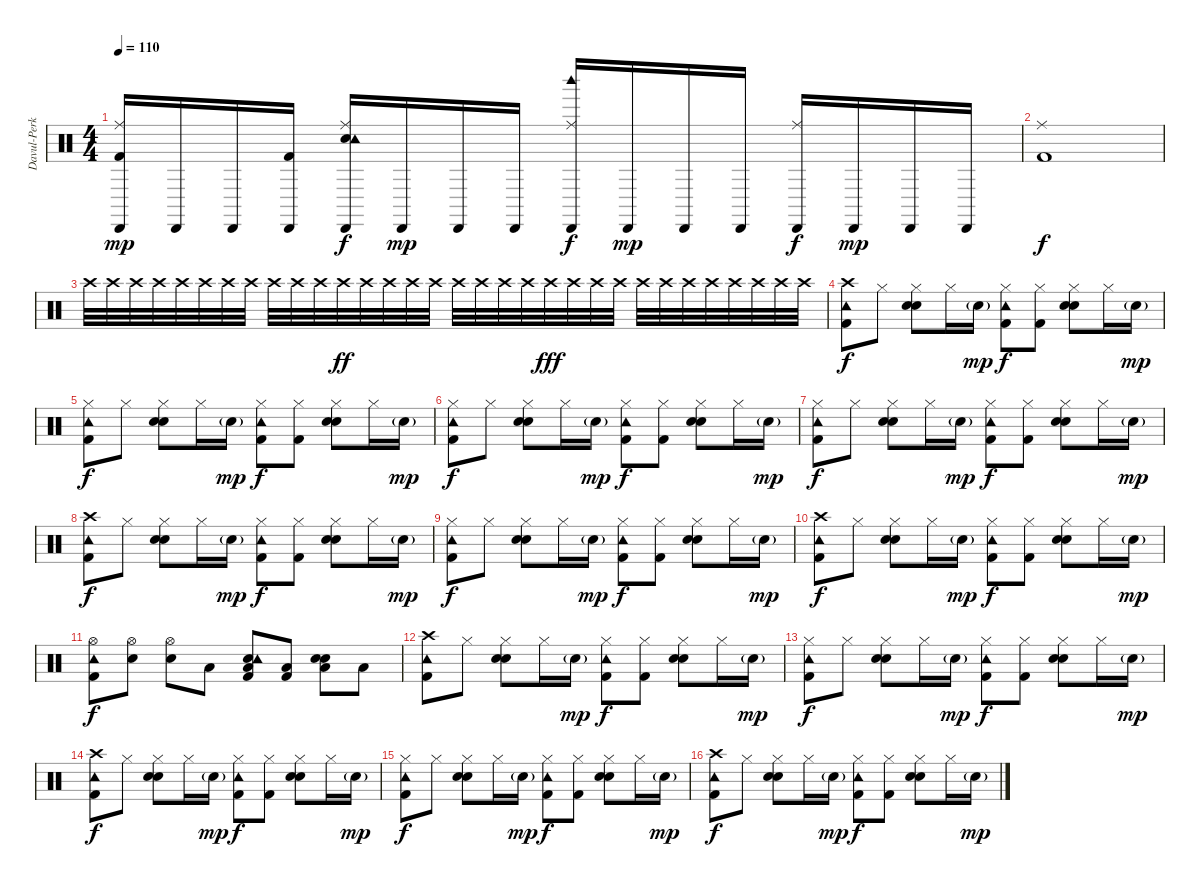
\track ("Davul-Perküsyon" "Davul-Perk") {instrument percussion}
\staff {score}
\articulation defaults
\ts (4 4)
\tempo 110
\clef neutral
\ks c
("Ride (middle)" "Cabasa (hit)" "Kick (hit) 2").16{dy mp} "Cabasa (hit)".16 "Cabasa (hit)".16 ("Cabasa (hit)" "Kick (hit) 2").16 ("Electric Snare (hit)" "Ride (middle)" "Tambourine (hit)" "Cabasa (hit)").16{dy f} "Cabasa (hit)".16{dy mp} "Cabasa (hit)".16 "Cabasa (hit)".16 ("Ride (middle)" "Woodblock high (hit)" "Cabasa (hit)").16{dy f} "Cabasa (hit)".16{dy mp} "Cabasa (hit)".16 "Cabasa (hit)".16 ("Ride (middle)" "Cabasa (hit)").16{dy f} "Cabasa (hit)".16{dy mp} "Cabasa (hit)".16 "Cabasa (hit)".16 |
("Ride (middle)" "Kick (hit) 2").1{dy f} |
"Crash high (hit)".32{volume 1} "Crash high (hit)".32 "Crash high (hit)".32{volume 2} "Crash high (hit)".32 "Crash high (hit)".32{volume 3} "Crash high (hit)".32 "Crash high (hit)".32{volume 4} "Crash high (hit)".32 "Crash high (hit)".32{volume 5} "Crash high (hit)".32 "Crash high (hit)".32{volume 6} "Crash high (hit)".32{dy ff} "Crash high (hit)".32{volume 7} "Crash high (hit)".32 "Crash high (hit)".32{volume 8} "Crash high (hit)".32 "Crash high (hit)".32{volume 9} "Crash high (hit)".32 "Crash high (hit)".32{volume 10} "Crash high (hit)".32 "Crash high (hit)".32{dy fff volume 11} "Crash high (hit)".32 "Crash high (hit)".32{volume 12} "Crash high (hit)".32 "Crash high (hit)".32{volume 13} "Crash high (hit)".32 "Crash high (hit)".32{volume 14} "Crash high (hit)".32 "Crash high (hit)".32{volume 15} "Crash high (hit)".32 "Crash high (hit)".32{volume 16} "Crash high (hit)".32 |
("Crash high (hit)" "Tambourine (hit)" "Kick (hit) 2").8{dy f} "Hi-Hat (closed)".8 ("Electric Snare (hit)" "Hi-Hat (closed)" "Hand Clap (hit)").8 "Hi-Hat (closed)".16 "Electric Snare (hit)"{g}.16{dy mp} ("Hi-Hat (closed)" "Tambourine (hit)" "Kick (hit) 2").8{dy f} ("Hi-Hat (closed)" "Kick (hit) 2").8 ("Electric Snare (hit)" "Hi-Hat (closed)" "Hand Clap (hit)").8 "Hi-Hat (closed)".16 "Electric Snare (hit)"{g}.16{dy mp} |
("Hi-Hat (closed)" "Tambourine (hit)" "Kick (hit) 2").8{dy f} "Hi-Hat (closed)".8 ("Electric Snare (hit)" "Hi-Hat (closed)" "Hand Clap (hit)").8 "Hi-Hat (closed)".16 "Electric Snare (hit)"{g}.16{dy mp} ("Hi-Hat (closed)" "Tambourine (hit)" "Kick (hit) 2").8{dy f} ("Hi-Hat (closed)" "Kick (hit) 2").8 ("Electric Snare (hit)" "Hi-Hat (closed)" "Hand Clap (hit)").8 "Hi-Hat (closed)".16 "Electric Snare (hit)"{g}.16{dy mp} |
("Hi-Hat (closed)" "Tambourine (hit)" "Kick (hit) 2").8{dy f} "Hi-Hat (closed)".8 ("Electric Snare (hit)" "Hi-Hat (closed)" "Hand Clap (hit)").8 "Hi-Hat (closed)".16 "Electric Snare (hit)"{g}.16{dy mp} ("Hi-Hat (closed)" "Tambourine (hit)" "Kick (hit) 2").8{dy f} ("Hi-Hat (closed)" "Kick (hit) 2").8 ("Electric Snare (hit)" "Hi-Hat (closed)" "Hand Clap (hit)").8 "Hi-Hat (closed)".16 "Electric Snare (hit)"{g}.16{dy mp} |
("Hi-Hat (closed)" "Tambourine (hit)" "Kick (hit) 2").8{dy f} "Hi-Hat (closed)".8 ("Electric Snare (hit)" "Hi-Hat (closed)" "Hand Clap (hit)").8 "Hi-Hat (closed)".16 "Electric Snare (hit)"{g}.16{dy mp} ("Hi-Hat (closed)" "Tambourine (hit)" "Kick (hit) 2").8{dy f} ("Hi-Hat (closed)" "Kick (hit) 2").8 ("Electric Snare (hit)" "Hi-Hat (closed)" "Hand Clap (hit)").8 "Hi-Hat (closed)".16 "Electric Snare (hit)"{g}.16{dy mp} |
("Crash high (hit)" "Tambourine (hit)" "Kick (hit) 2").8{dy f} "Hi-Hat (closed)".8 ("Electric Snare (hit)" "Hi-Hat (closed)" "Hand Clap (hit)").8 "Hi-Hat (closed)".16 "Electric Snare (hit)"{g}.16{dy mp} ("Hi-Hat (closed)" "Tambourine (hit)" "Kick (hit) 2").8{dy f} ("Hi-Hat (closed)" "Kick (hit) 2").8 ("Electric Snare (hit)" "Hi-Hat (closed)" "Hand Clap (hit)").8 "Hi-Hat (closed)".16 "Electric Snare (hit)"{g}.16{dy mp} |
("Hi-Hat (closed)" "Tambourine (hit)" "Kick (hit) 2").8{dy f} "Hi-Hat (closed)".8 ("Electric Snare (hit)" "Hi-Hat (closed)" "Hand Clap (hit)").8 "Hi-Hat (closed)".16 "Electric Snare (hit)"{g}.16{dy mp} ("Hi-Hat (closed)" "Tambourine (hit)" "Kick (hit) 2").8{dy f} ("Hi-Hat (closed)" "Kick (hit) 2").8 ("Electric Snare (hit)" "Hi-Hat (closed)" "Hand Clap (hit)").8 "Hi-Hat (closed)".16 "Electric Snare (hit)"{g}.16{dy mp} |
("Crash high (hit)" "Tambourine (hit)" "Kick (hit) 2").8{dy f} "Hi-Hat (closed)".8 ("Electric Snare (hit)" "Hi-Hat (closed)" "Hand Clap (hit)").8 "Hi-Hat (closed)".16 "Electric Snare (hit)"{g}.16{dy mp} ("Hi-Hat (closed)" "Tambourine (hit)" "Kick (hit) 2").8{dy f} ("Hi-Hat (closed)" "Kick (hit) 2").8 ("Electric Snare (hit)" "Hi-Hat (closed)" "Hand Clap (hit)").8 "Hi-Hat (closed)".16 "Electric Snare (hit)"{g}.16{dy mp} |
("Hi-Hat (open)" "Tambourine (hit)" "Kick (hit) 2").8{dy f} ("Electric Snare (hit)" "Hi-Hat (open)").8 ("Hi-Hat (open)" "Hand Clap (hit)").8 "Low Tom (hit)".8 ("Electric Snare (hit)" "Low Tom (hit)" "Tambourine (hit)" "Kick (hit) 2").8 ("Low Tom (hit)" "Kick (hit) 2").8 ("Electric Snare (hit)" "Low Tom (hit)" "Hand Clap (hit)").8 "Low Tom (hit)".8 |
("Crash high (hit)" "Tambourine (hit)" "Kick (hit) 2").8 "Hi-Hat (closed)".8 ("Electric Snare (hit)" "Hi-Hat (closed)" "Hand Clap (hit)").8 "Hi-Hat (closed)".16 "Electric Snare (hit)"{g}.16{dy mp} ("Hi-Hat (closed)" "Tambourine (hit)" "Kick (hit) 2").8{dy f} ("Hi-Hat (closed)" "Kick (hit) 2").8 ("Electric Snare (hit)" "Hi-Hat (closed)" "Hand Clap (hit)").8 "Hi-Hat (closed)".16 "Electric Snare (hit)"{g}.16{dy mp} |
("Hi-Hat (closed)" "Tambourine (hit)" "Kick (hit) 2").8{dy f} "Hi-Hat (closed)".8 ("Electric Snare (hit)" "Hi-Hat (closed)" "Hand Clap (hit)").8 "Hi-Hat (closed)".16 "Electric Snare (hit)"{g}.16{dy mp} ("Hi-Hat (closed)" "Tambourine (hit)" "Kick (hit) 2").8{dy f} ("Hi-Hat (closed)" "Kick (hit) 2").8 ("Electric Snare (hit)" "Hi-Hat (closed)" "Hand Clap (hit)").8 "Hi-Hat (closed)".16 "Electric Snare (hit)"{g}.16{dy mp} |
("Crash high (hit)" "Tambourine (hit)" "Kick (hit) 2").8{dy f} "Hi-Hat (closed)".8 ("Electric Snare (hit)" "Hi-Hat (closed)" "Hand Clap (hit)").8 "Hi-Hat (closed)".16 "Electric Snare (hit)"{g}.16{dy mp} ("Hi-Hat (closed)" "Tambourine (hit)" "Kick (hit) 2").8{dy f} ("Hi-Hat (closed)" "Kick (hit) 2").8 ("Electric Snare (hit)" "Hi-Hat (closed)" "Hand Clap (hit)").8 "Hi-Hat (closed)".16 "Electric Snare (hit)"{g}.16{dy mp} |
("Hi-Hat (closed)" "Tambourine (hit)" "Kick (hit) 2").8{dy f} "Hi-Hat (closed)".8 ("Electric Snare (hit)" "Hi-Hat (closed)" "Hand Clap (hit)").8 "Hi-Hat (closed)".16 "Electric Snare (hit)"{g}.16{dy mp} ("Hi-Hat (closed)" "Tambourine (hit)" "Kick (hit) 2").8{dy f} ("Hi-Hat (closed)" "Kick (hit) 2").8 ("Electric Snare (hit)" "Hi-Hat (closed)" "Hand Clap (hit)").8 "Hi-Hat (closed)".16 "Electric Snare (hit)"{g}.16{dy mp} |
("Crash high (hit)" "Tambourine (hit)" "Kick (hit) 2").8{dy f} "Hi-Hat (closed)".8 ("Electric Snare (hit)" "Hi-Hat (closed)" "Hand Clap (hit)").8 "Hi-Hat (closed)".16 "Electric Snare (hit)"{g}.16{dy mp} ("Hi-Hat (closed)" "Tambourine (hit)" "Kick (hit) 2").8{dy f} ("Hi-Hat (closed)" "Kick (hit) 2").8 ("Electric Snare (hit)" "Hi-Hat (closed)" "Hand Clap (hit)").8 "Hi-Hat (closed)".16 "Electric Snare (hit)"{g}.16{dy mp}
